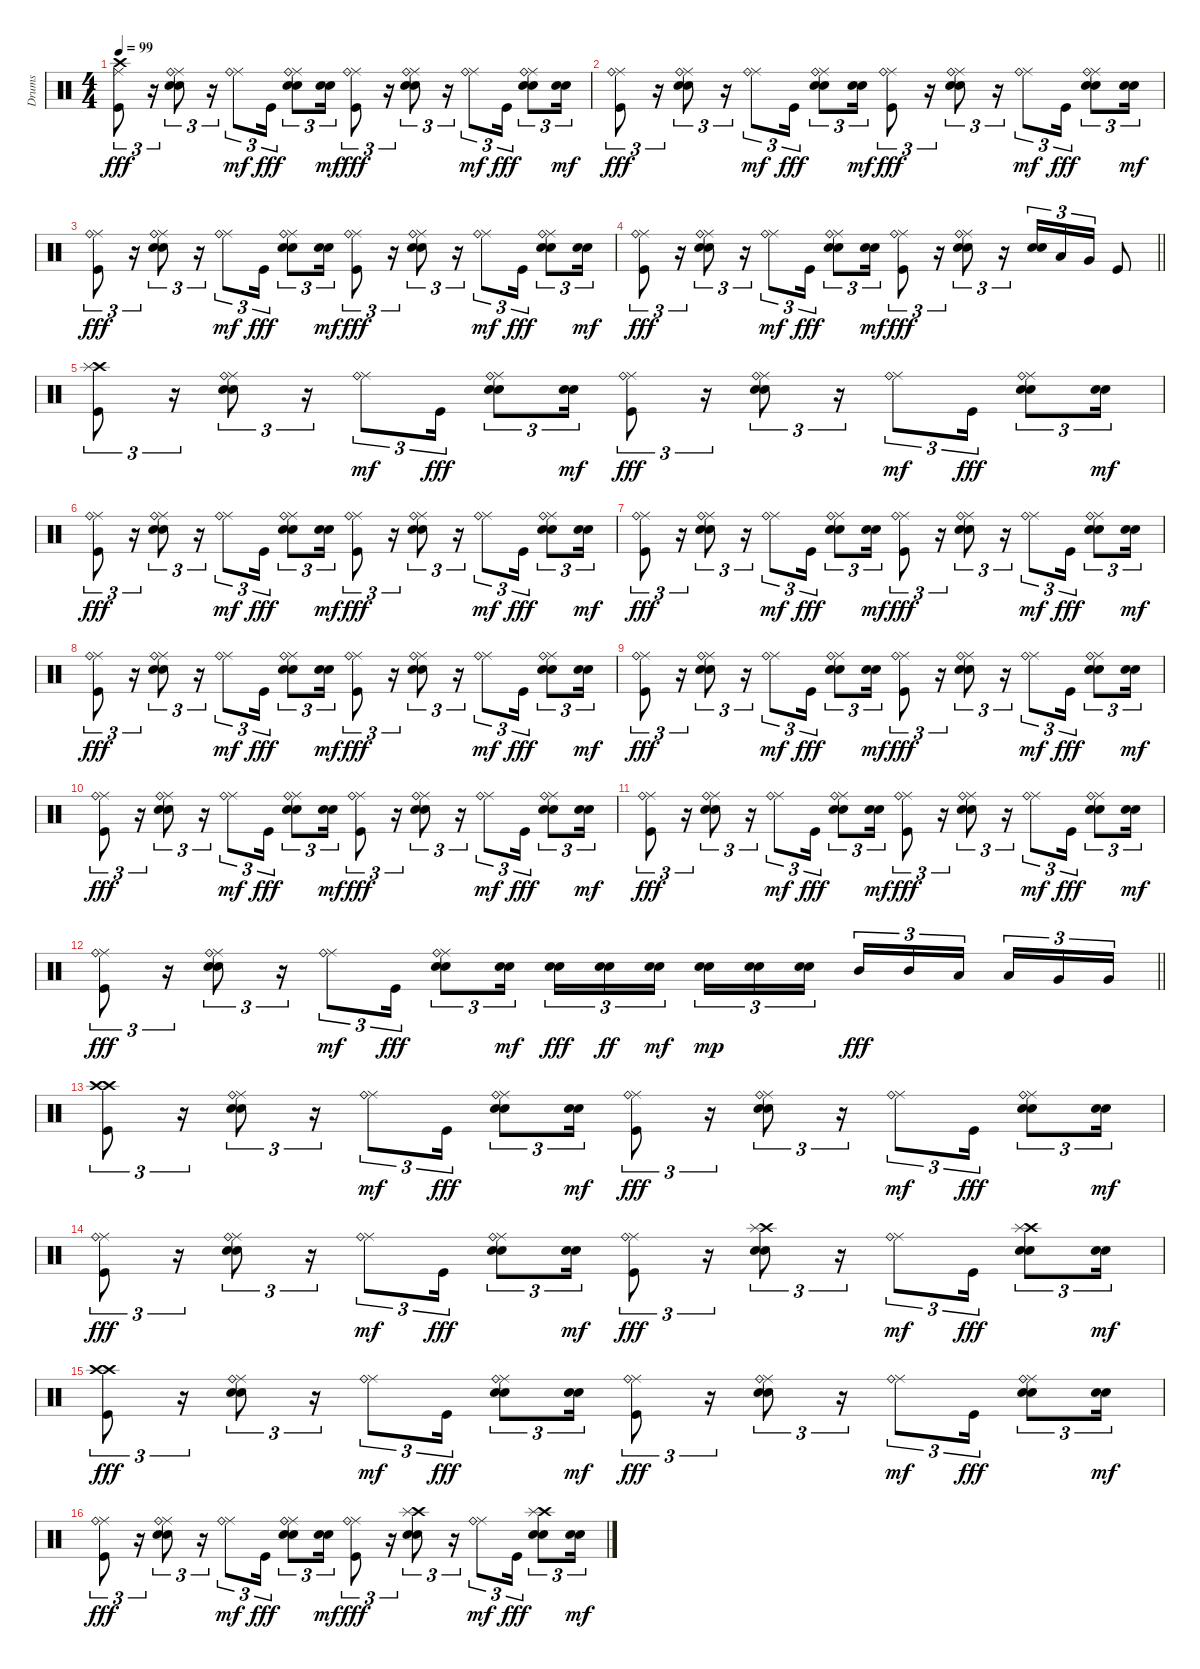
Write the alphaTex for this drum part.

\track ("Drums" "Drums") {instrument percussion}
\staff {score}
\articulation defaults
\ts (4 4)
\tempo 99
\clef neutral
\ks c
("Ride (middle)" "Crash high (hit)" "Kick (hit)").8{tu (3 2) dy fff} r.16{tu (3 2)} ("Ride (middle)" "Ride (bell)" "Snare (hit) 2" "Electric Snare (hit)").8{tu (3 2)} r.16{tu (3 2)} ("Ride (middle)" "Ride (bell)").8{tu (3 2) dy mf} "Kick (hit)".16{tu (3 2) dy fff} ("Ride (middle)" "Ride (bell)" "Snare (hit) 2" "Electric Snare (hit)").8{tu (3 2)} ("Snare (hit) 2" "Electric Snare (hit)").16{tu (3 2) dy mf} ("Ride (middle)" "Ride (bell)" "Kick (hit)").8{tu (3 2) dy fff} r.16{tu (3 2)} ("Ride (middle)" "Ride (bell)" "Snare (hit) 2" "Electric Snare (hit)").8{tu (3 2)} r.16{tu (3 2)} ("Ride (middle)" "Ride (bell)").8{tu (3 2) dy mf} "Kick (hit)".16{tu (3 2) dy fff} ("Ride (middle)" "Ride (bell)" "Snare (hit) 2" "Electric Snare (hit)").8{tu (3 2)} ("Snare (hit) 2" "Electric Snare (hit)").16{tu (3 2) dy mf} |
("Ride (middle)" "Ride (bell)" "Kick (hit)").8{tu (3 2) dy fff} r.16{tu (3 2)} ("Ride (middle)" "Ride (bell)" "Snare (hit) 2" "Electric Snare (hit)").8{tu (3 2)} r.16{tu (3 2)} ("Ride (middle)" "Ride (bell)").8{tu (3 2) dy mf} "Kick (hit)".16{tu (3 2) dy fff} ("Ride (middle)" "Ride (bell)" "Snare (hit) 2" "Electric Snare (hit)").8{tu (3 2)} ("Snare (hit) 2" "Electric Snare (hit)").16{tu (3 2) dy mf} ("Ride (middle)" "Ride (bell)" "Kick (hit)").8{tu (3 2) dy fff} r.16{tu (3 2)} ("Ride (middle)" "Ride (bell)" "Snare (hit) 2" "Electric Snare (hit)").8{tu (3 2)} r.16{tu (3 2)} ("Ride (middle)" "Ride (bell)").8{tu (3 2) dy mf} "Kick (hit)".16{tu (3 2) dy fff} ("Ride (middle)" "Ride (bell)" "Snare (hit) 2" "Electric Snare (hit)").8{tu (3 2)} ("Snare (hit) 2" "Electric Snare (hit)").16{tu (3 2) dy mf} |
("Ride (middle)" "Ride (bell)" "Kick (hit)").8{tu (3 2) dy fff} r.16{tu (3 2)} ("Ride (middle)" "Ride (bell)" "Snare (hit) 2" "Electric Snare (hit)").8{tu (3 2)} r.16{tu (3 2)} ("Ride (middle)" "Ride (bell)").8{tu (3 2) dy mf} "Kick (hit)".16{tu (3 2) dy fff} ("Ride (middle)" "Ride (bell)" "Snare (hit) 2" "Electric Snare (hit)").8{tu (3 2)} ("Snare (hit) 2" "Electric Snare (hit)").16{tu (3 2) dy mf} ("Ride (middle)" "Ride (bell)" "Kick (hit)").8{tu (3 2) dy fff} r.16{tu (3 2)} ("Ride (middle)" "Ride (bell)" "Snare (hit) 2" "Electric Snare (hit)").8{tu (3 2)} r.16{tu (3 2)} ("Ride (middle)" "Ride (bell)").8{tu (3 2) dy mf} "Kick (hit)".16{tu (3 2) dy fff} ("Ride (middle)" "Ride (bell)" "Snare (hit) 2" "Electric Snare (hit)").8{tu (3 2)} ("Snare (hit) 2" "Electric Snare (hit)").16{tu (3 2) dy mf} |
\barLineRight lightlight
("Ride (middle)" "Ride (bell)" "Kick (hit)").8{tu (3 2) dy fff} r.16{tu (3 2)} ("Ride (middle)" "Ride (bell)" "Snare (hit) 2" "Electric Snare (hit)").8{tu (3 2)} r.16{tu (3 2)} ("Ride (middle)" "Ride (bell)").8{tu (3 2) dy mf} "Kick (hit)".16{tu (3 2) dy fff} ("Ride (middle)" "Ride (bell)" "Snare (hit) 2" "Electric Snare (hit)").8{tu (3 2)} ("Snare (hit) 2" "Electric Snare (hit)").16{tu (3 2) dy mf} ("Ride (middle)" "Ride (bell)" "Kick (hit)").8{tu (3 2) dy fff} r.16{tu (3 2)} ("Ride (middle)" "Ride (bell)" "Snare (hit) 2" "Electric Snare (hit)").8{tu (3 2)} r.16{tu (3 2)} ("Snare (hit) 2" "Electric Snare (hit)").16{tu (3 2)} "Low Tom (hit)".16{tu (3 2)} "Very Low Tom (hit)".16{tu (3 2)} "Kick (hit)".8 |
("Crash high (hit)" "Splash (hit)" "Kick (hit)").8{tu (3 2)} r.16{tu (3 2)} ("Ride (middle)" "Ride (bell)" "Snare (hit) 2" "Electric Snare (hit)").8{tu (3 2)} r.16{tu (3 2)} ("Ride (middle)" "Ride (bell)").8{tu (3 2) dy mf} "Kick (hit)".16{tu (3 2) dy fff} ("Ride (middle)" "Ride (bell)" "Snare (hit) 2" "Electric Snare (hit)").8{tu (3 2)} ("Snare (hit) 2" "Electric Snare (hit)").16{tu (3 2) dy mf} ("Ride (middle)" "Ride (bell)" "Kick (hit)").8{tu (3 2) dy fff} r.16{tu (3 2)} ("Ride (middle)" "Ride (bell)" "Snare (hit) 2" "Electric Snare (hit)").8{tu (3 2)} r.16{tu (3 2)} ("Ride (middle)" "Ride (bell)").8{tu (3 2) dy mf} "Kick (hit)".16{tu (3 2) dy fff} ("Ride (middle)" "Ride (bell)" "Snare (hit) 2" "Electric Snare (hit)").8{tu (3 2)} ("Snare (hit) 2" "Electric Snare (hit)").16{tu (3 2) dy mf} |
("Ride (middle)" "Ride (bell)" "Kick (hit)").8{tu (3 2) dy fff} r.16{tu (3 2)} ("Ride (middle)" "Ride (bell)" "Snare (hit) 2" "Electric Snare (hit)").8{tu (3 2)} r.16{tu (3 2)} ("Ride (middle)" "Ride (bell)").8{tu (3 2) dy mf} "Kick (hit)".16{tu (3 2) dy fff} ("Ride (middle)" "Ride (bell)" "Snare (hit) 2" "Electric Snare (hit)").8{tu (3 2)} ("Snare (hit) 2" "Electric Snare (hit)").16{tu (3 2) dy mf} ("Ride (middle)" "Ride (bell)" "Kick (hit)").8{tu (3 2) dy fff} r.16{tu (3 2)} ("Ride (middle)" "Ride (bell)" "Snare (hit) 2" "Electric Snare (hit)").8{tu (3 2)} r.16{tu (3 2)} ("Ride (middle)" "Ride (bell)").8{tu (3 2) dy mf} "Kick (hit)".16{tu (3 2) dy fff} ("Ride (middle)" "Ride (bell)" "Snare (hit) 2" "Electric Snare (hit)").8{tu (3 2)} ("Snare (hit) 2" "Electric Snare (hit)").16{tu (3 2) dy mf} |
("Ride (middle)" "Ride (bell)" "Kick (hit)").8{tu (3 2) dy fff} r.16{tu (3 2)} ("Ride (middle)" "Ride (bell)" "Snare (hit) 2" "Electric Snare (hit)").8{tu (3 2)} r.16{tu (3 2)} ("Ride (middle)" "Ride (bell)").8{tu (3 2) dy mf} "Kick (hit)".16{tu (3 2) dy fff} ("Ride (middle)" "Ride (bell)" "Snare (hit) 2" "Electric Snare (hit)").8{tu (3 2)} ("Snare (hit) 2" "Electric Snare (hit)").16{tu (3 2) dy mf} ("Ride (middle)" "Ride (bell)" "Kick (hit)").8{tu (3 2) dy fff} r.16{tu (3 2)} ("Ride (middle)" "Ride (bell)" "Snare (hit) 2" "Electric Snare (hit)").8{tu (3 2)} r.16{tu (3 2)} ("Ride (middle)" "Ride (bell)").8{tu (3 2) dy mf} "Kick (hit)".16{tu (3 2) dy fff} ("Ride (middle)" "Ride (bell)" "Snare (hit) 2" "Electric Snare (hit)").8{tu (3 2)} ("Snare (hit) 2" "Electric Snare (hit)").16{tu (3 2) dy mf} |
("Ride (middle)" "Ride (bell)" "Kick (hit)").8{tu (3 2) dy fff} r.16{tu (3 2)} ("Ride (middle)" "Ride (bell)" "Snare (hit) 2" "Electric Snare (hit)").8{tu (3 2)} r.16{tu (3 2)} ("Ride (middle)" "Ride (bell)").8{tu (3 2) dy mf} "Kick (hit)".16{tu (3 2) dy fff} ("Ride (middle)" "Ride (bell)" "Snare (hit) 2" "Electric Snare (hit)").8{tu (3 2)} ("Snare (hit) 2" "Electric Snare (hit)").16{tu (3 2) dy mf} ("Ride (middle)" "Ride (bell)" "Kick (hit)").8{tu (3 2) dy fff} r.16{tu (3 2)} ("Ride (middle)" "Ride (bell)" "Snare (hit) 2" "Electric Snare (hit)").8{tu (3 2)} r.16{tu (3 2)} ("Ride (middle)" "Ride (bell)").8{tu (3 2) dy mf} "Kick (hit)".16{tu (3 2) dy fff} ("Ride (middle)" "Ride (bell)" "Snare (hit) 2" "Electric Snare (hit)").8{tu (3 2)} ("Snare (hit) 2" "Electric Snare (hit)").16{tu (3 2) dy mf} |
("Ride (middle)" "Ride (bell)" "Kick (hit)").8{tu (3 2) dy fff} r.16{tu (3 2)} ("Ride (middle)" "Ride (bell)" "Snare (hit) 2" "Electric Snare (hit)").8{tu (3 2)} r.16{tu (3 2)} ("Ride (middle)" "Ride (bell)").8{tu (3 2) dy mf} "Kick (hit)".16{tu (3 2) dy fff} ("Ride (middle)" "Ride (bell)" "Snare (hit) 2" "Electric Snare (hit)").8{tu (3 2)} ("Snare (hit) 2" "Electric Snare (hit)").16{tu (3 2) dy mf} ("Ride (middle)" "Ride (bell)" "Kick (hit)").8{tu (3 2) dy fff} r.16{tu (3 2)} ("Ride (middle)" "Ride (bell)" "Snare (hit) 2" "Electric Snare (hit)").8{tu (3 2)} r.16{tu (3 2)} ("Ride (middle)" "Ride (bell)").8{tu (3 2) dy mf} "Kick (hit)".16{tu (3 2) dy fff} ("Ride (middle)" "Ride (bell)" "Snare (hit) 2" "Electric Snare (hit)").8{tu (3 2)} ("Snare (hit) 2" "Electric Snare (hit)").16{tu (3 2) dy mf} |
("Ride (middle)" "Ride (bell)" "Kick (hit)").8{tu (3 2) dy fff} r.16{tu (3 2)} ("Ride (middle)" "Ride (bell)" "Snare (hit) 2" "Electric Snare (hit)").8{tu (3 2)} r.16{tu (3 2)} ("Ride (middle)" "Ride (bell)").8{tu (3 2) dy mf} "Kick (hit)".16{tu (3 2) dy fff} ("Ride (middle)" "Ride (bell)" "Snare (hit) 2" "Electric Snare (hit)").8{tu (3 2)} ("Snare (hit) 2" "Electric Snare (hit)").16{tu (3 2) dy mf} ("Ride (middle)" "Ride (bell)" "Kick (hit)").8{tu (3 2) dy fff} r.16{tu (3 2)} ("Ride (middle)" "Ride (bell)" "Snare (hit) 2" "Electric Snare (hit)").8{tu (3 2)} r.16{tu (3 2)} ("Ride (middle)" "Ride (bell)").8{tu (3 2) dy mf} "Kick (hit)".16{tu (3 2) dy fff} ("Ride (middle)" "Ride (bell)" "Snare (hit) 2" "Electric Snare (hit)").8{tu (3 2)} ("Snare (hit) 2" "Electric Snare (hit)").16{tu (3 2) dy mf} |
("Ride (middle)" "Ride (bell)" "Kick (hit)").8{tu (3 2) dy fff} r.16{tu (3 2)} ("Ride (middle)" "Ride (bell)" "Snare (hit) 2" "Electric Snare (hit)").8{tu (3 2)} r.16{tu (3 2)} ("Ride (middle)" "Ride (bell)").8{tu (3 2) dy mf} "Kick (hit)".16{tu (3 2) dy fff} ("Ride (middle)" "Ride (bell)" "Snare (hit) 2" "Electric Snare (hit)").8{tu (3 2)} ("Snare (hit) 2" "Electric Snare (hit)").16{tu (3 2) dy mf} ("Ride (middle)" "Ride (bell)" "Kick (hit)").8{tu (3 2) dy fff} r.16{tu (3 2)} ("Ride (middle)" "Ride (bell)" "Snare (hit) 2" "Electric Snare (hit)").8{tu (3 2)} r.16{tu (3 2)} ("Ride (middle)" "Ride (bell)").8{tu (3 2) dy mf} "Kick (hit)".16{tu (3 2) dy fff} ("Ride (middle)" "Ride (bell)" "Snare (hit) 2" "Electric Snare (hit)").8{tu (3 2)} ("Snare (hit) 2" "Electric Snare (hit)").16{tu (3 2) dy mf} |
\barLineRight lightlight
("Ride (middle)" "Ride (bell)" "Kick (hit)").8{tu (3 2) dy fff} r.16{tu (3 2)} ("Ride (middle)" "Ride (bell)" "Snare (hit) 2" "Electric Snare (hit)").8{tu (3 2)} r.16{tu (3 2)} ("Ride (middle)" "Ride (bell)").8{tu (3 2) dy mf} "Kick (hit)".16{tu (3 2) dy fff} ("Ride (middle)" "Ride (bell)" "Snare (hit) 2" "Electric Snare (hit)").8{tu (3 2)} ("Snare (hit) 2" "Electric Snare (hit)").16{tu (3 2) dy mf} ("Snare (hit) 2" "Electric Snare (hit)").16{tu (3 2) dy fff} ("Snare (hit) 2" "Electric Snare (hit)").16{tu (3 2) dy ff} ("Snare (hit) 2" "Electric Snare (hit)").16{tu (3 2) dy mf beam splitsecondary} ("Snare (hit) 2" "Electric Snare (hit)").16{tu (3 2) dy mp} ("Snare (hit) 2" "Electric Snare (hit)").16{tu (3 2)} ("Snare (hit) 2" "Electric Snare (hit)").16{tu (3 2)} "Mid Tom (hit)".16{tu (3 2) dy fff} "Mid Tom (hit)".16{tu (3 2)} "Low Tom (hit)".16{tu (3 2) beam splitsecondary} "Low Tom (hit)".16{tu (3 2)} "Very Low Tom (hit)".16{tu (3 2)} "Very Low Tom (hit)".16{tu (3 2)} |
("Crash high (hit)" "Crash high (hit)" "Kick (hit)").8{tu (3 2)} r.16{tu (3 2)} ("Ride (middle)" "Ride (bell)" "Snare (hit) 2" "Electric Snare (hit)").8{tu (3 2)} r.16{tu (3 2)} ("Ride (middle)" "Ride (bell)").8{tu (3 2) dy mf} "Kick (hit)".16{tu (3 2) dy fff} ("Ride (middle)" "Ride (bell)" "Snare (hit) 2" "Electric Snare (hit)").8{tu (3 2)} ("Snare (hit) 2" "Electric Snare (hit)").16{tu (3 2) dy mf} ("Ride (middle)" "Ride (bell)" "Kick (hit)").8{tu (3 2) dy fff} r.16{tu (3 2)} ("Ride (middle)" "Ride (bell)" "Snare (hit) 2" "Electric Snare (hit)").8{tu (3 2)} r.16{tu (3 2)} ("Ride (middle)" "Ride (bell)").8{tu (3 2) dy mf} "Kick (hit)".16{tu (3 2) dy fff} ("Ride (middle)" "Ride (bell)" "Snare (hit) 2" "Electric Snare (hit)").8{tu (3 2)} ("Snare (hit) 2" "Electric Snare (hit)").16{tu (3 2) dy mf} |
("Ride (middle)" "Ride (bell)" "Kick (hit)").8{tu (3 2) dy fff} r.16{tu (3 2)} ("Ride (middle)" "Ride (bell)" "Snare (hit) 2" "Electric Snare (hit)").8{tu (3 2)} r.16{tu (3 2)} ("Ride (middle)" "Ride (bell)").8{tu (3 2) dy mf} "Kick (hit)".16{tu (3 2) dy fff} ("Ride (middle)" "Ride (bell)" "Snare (hit) 2" "Electric Snare (hit)").8{tu (3 2)} ("Snare (hit) 2" "Electric Snare (hit)").16{tu (3 2) dy mf} ("Ride (middle)" "Ride (bell)" "Kick (hit)").8{tu (3 2) dy fff} r.16{tu (3 2)} ("Crash high (hit)" "Splash (hit)" "Snare (hit) 2" "Electric Snare (hit)").8{tu (3 2)} r.16{tu (3 2)} ("Ride (middle)" "Ride (bell)").8{tu (3 2) dy mf} "Kick (hit)".16{tu (3 2) dy fff} ("Crash high (hit)" "Splash (hit)" "Snare (hit) 2" "Electric Snare (hit)").8{tu (3 2)} ("Snare (hit) 2" "Electric Snare (hit)").16{tu (3 2) dy mf} |
("Crash high (hit)" "Crash high (hit)" "Kick (hit)").8{tu (3 2) dy fff} r.16{tu (3 2)} ("Ride (middle)" "Ride (bell)" "Snare (hit) 2" "Electric Snare (hit)").8{tu (3 2)} r.16{tu (3 2)} ("Ride (middle)" "Ride (bell)").8{tu (3 2) dy mf} "Kick (hit)".16{tu (3 2) dy fff} ("Ride (middle)" "Ride (bell)" "Snare (hit) 2" "Electric Snare (hit)").8{tu (3 2)} ("Snare (hit) 2" "Electric Snare (hit)").16{tu (3 2) dy mf} ("Ride (middle)" "Ride (bell)" "Kick (hit)").8{tu (3 2) dy fff} r.16{tu (3 2)} ("Ride (middle)" "Ride (bell)" "Snare (hit) 2" "Electric Snare (hit)").8{tu (3 2)} r.16{tu (3 2)} ("Ride (middle)" "Ride (bell)").8{tu (3 2) dy mf} "Kick (hit)".16{tu (3 2) dy fff} ("Ride (middle)" "Ride (bell)" "Snare (hit) 2" "Electric Snare (hit)").8{tu (3 2)} ("Snare (hit) 2" "Electric Snare (hit)").16{tu (3 2) dy mf} |
("Ride (middle)" "Ride (bell)" "Kick (hit)").8{tu (3 2) dy fff} r.16{tu (3 2)} ("Ride (middle)" "Ride (bell)" "Snare (hit) 2" "Electric Snare (hit)").8{tu (3 2)} r.16{tu (3 2)} ("Ride (middle)" "Ride (bell)").8{tu (3 2) dy mf} "Kick (hit)".16{tu (3 2) dy fff} ("Ride (middle)" "Ride (bell)" "Snare (hit) 2" "Electric Snare (hit)").8{tu (3 2)} ("Snare (hit) 2" "Electric Snare (hit)").16{tu (3 2) dy mf} ("Ride (middle)" "Ride (bell)" "Kick (hit)").8{tu (3 2) dy fff} r.16{tu (3 2)} ("Crash high (hit)" "Splash (hit)" "Snare (hit) 2" "Electric Snare (hit)").8{tu (3 2)} r.16{tu (3 2)} ("Ride (middle)" "Ride (bell)").8{tu (3 2) dy mf} "Kick (hit)".16{tu (3 2) dy fff} ("Crash high (hit)" "Splash (hit)" "Snare (hit) 2" "Electric Snare (hit)").8{tu (3 2)} ("Snare (hit) 2" "Electric Snare (hit)").16{tu (3 2) dy mf}
